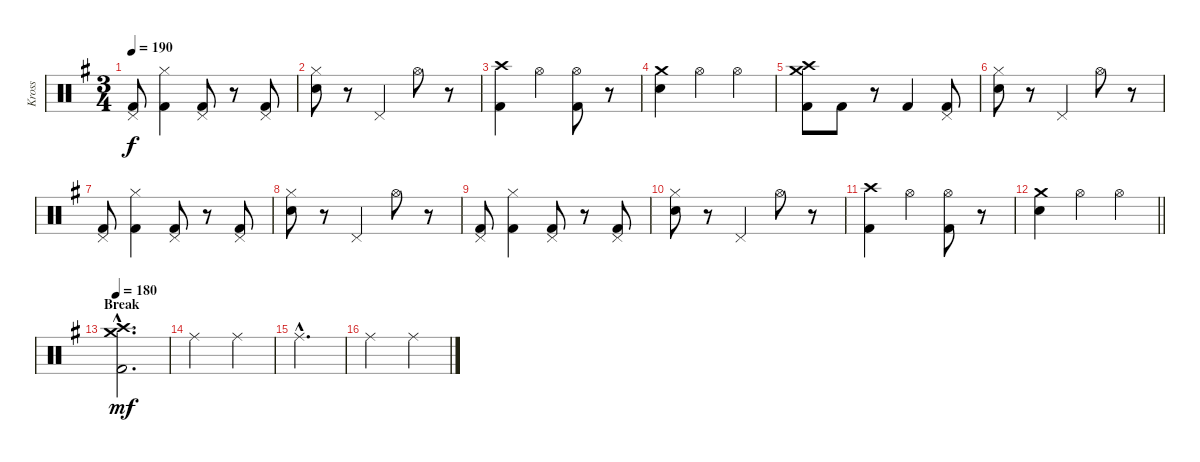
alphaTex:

\track ("Kross" "Kross") {instrument percussion}
\staff {score}
\articulation defaults
\ts (3 4)
\tempo 190
\clef neutral
\ks g
("Pedal Hi-Hat (hit)" "Kick (hit) 2").8{dy f} ("Hi-Hat (closed)" "Kick (hit) 2").4 ("Pedal Hi-Hat (hit)" "Kick (hit) 2").8 r.8 ("Pedal Hi-Hat (hit)" "Kick (hit) 2").8 |
("Hi-Hat (closed)" "Snare (hit) 2").8 r.8 "Pedal Hi-Hat (hit)".4 "Hi-Hat (open)".8 r.8 |
("Crash high (hit)" "Kick (hit) 2").4 "Hi-Hat (open)".4 ("Hi-Hat (open)" "Kick (hit) 2").8 r.8 |
("Crash medium (hit)" "Snare (hit) 2").4 "Hi-Hat (open)".4 "Hi-Hat (open)".4 |
("Crash medium (hit)" "Crash high (hit)" "Kick (hit) 2").8 "Kick (hit) 2".8 r.8 "Kick (hit) 2".4 ("Pedal Hi-Hat (hit)" "Kick (hit) 2").8 |
("Hi-Hat (closed)" "Snare (hit) 2").8 r.8 "Pedal Hi-Hat (hit)".4 "Hi-Hat (open)".8 r.8 |
("Pedal Hi-Hat (hit)" "Kick (hit) 2").8 ("Hi-Hat (closed)" "Kick (hit) 2").4 ("Pedal Hi-Hat (hit)" "Kick (hit) 2").8 r.8 ("Pedal Hi-Hat (hit)" "Kick (hit) 2").8 |
("Hi-Hat (closed)" "Snare (hit) 2").8 r.8 "Pedal Hi-Hat (hit)".4 "Hi-Hat (open)".8 r.8 |
("Pedal Hi-Hat (hit)" "Kick (hit) 2").8 ("Hi-Hat (closed)" "Kick (hit) 2").4 ("Pedal Hi-Hat (hit)" "Kick (hit) 2").8 r.8 ("Pedal Hi-Hat (hit)" "Kick (hit) 2").8 |
("Hi-Hat (closed)" "Snare (hit) 2").8 r.8 "Pedal Hi-Hat (hit)".4 "Hi-Hat (open)".8 r.8 |
("Crash high (hit)" "Kick (hit) 2").4 "Hi-Hat (open)".4 ("Hi-Hat (open)" "Kick (hit) 2").8 r.8 |
\barLineRight lightlight
("Crash medium (hit)" "Snare (hit) 2").4 "Hi-Hat (open)".4 "Hi-Hat (open)".4 |
\section ("" "Break")
\tempo 180
("Crash medium (hit)"{hac} "Crash high (hit)"{hac} "Kick (hit) 2"{hac}).2{d dy mf} |
"Ride (middle)".2 "Ride (middle)".4 |
"Ride (middle)"{hac}.2{d} |
"Ride (middle)".2 "Ride (middle)".4
